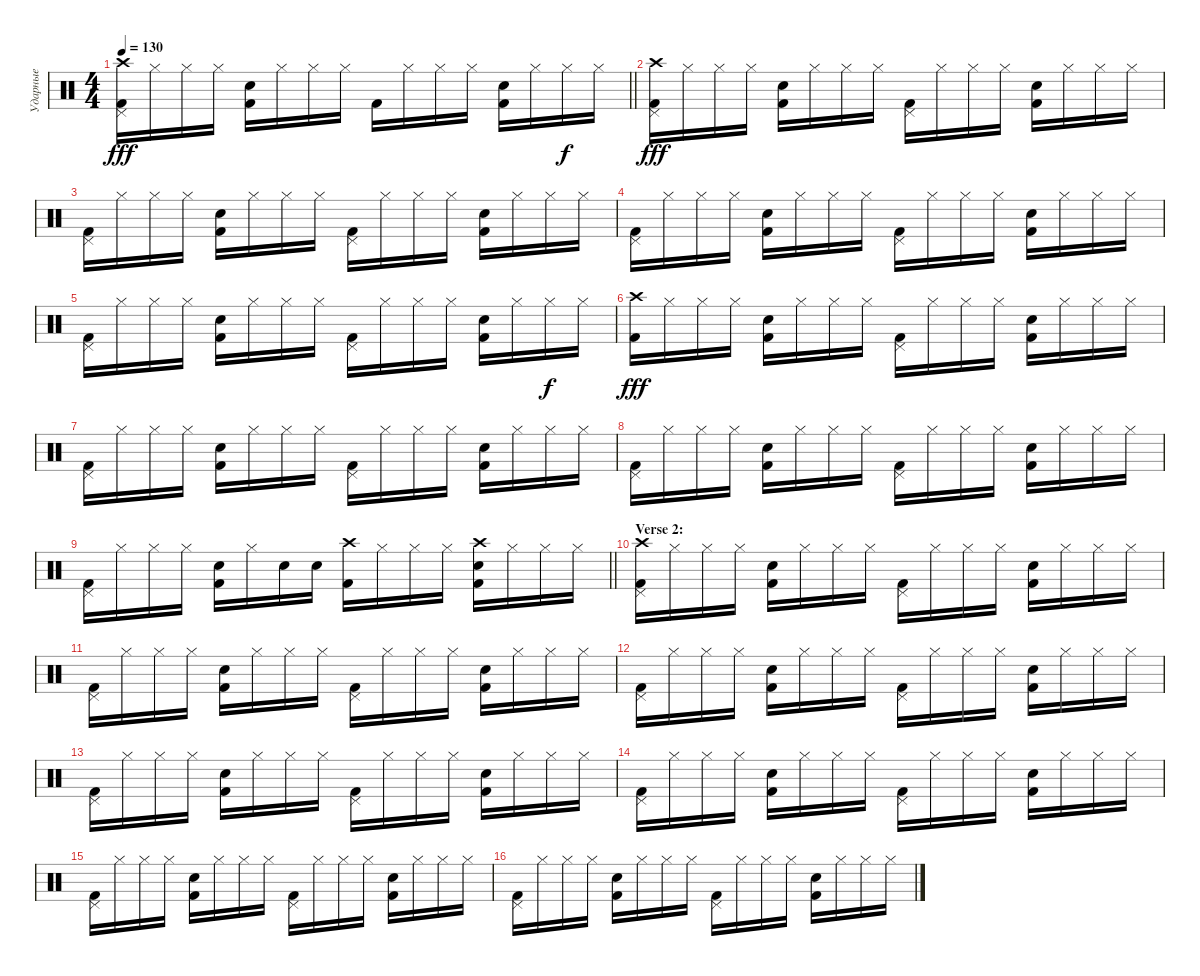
\track ("Ударные" "Ударные") {instrument percussion}
\staff {score}
\articulation defaults
\ts (4 4)
\tempo 130
\clef neutral
\barLineRight lightlight
\ks c
("Pedal Hi-Hat (hit)" "Crash high (hit)" "Kick (hit) 2").16{dy fff} "Hi-Hat (closed)".16 "Hi-Hat (closed)".16 "Hi-Hat (closed)".16 ("Snare (hit) 2" "Kick (hit) 2").16 "Hi-Hat (closed)".16 "Hi-Hat (closed)".16 "Hi-Hat (closed)".16 "Kick (hit) 2".16 "Hi-Hat (closed)".16 "Hi-Hat (closed)".16 "Hi-Hat (closed)".16 ("Snare (hit) 2" "Kick (hit) 2").16 "Hi-Hat (closed)".16 "Hi-Hat (closed)".16{dy f} "Hi-Hat (closed)".16 |
("Pedal Hi-Hat (hit)" "Crash high (hit)" "Kick (hit) 2").16{dy fff} "Hi-Hat (closed)".16 "Hi-Hat (closed)".16 "Hi-Hat (closed)".16 ("Snare (hit) 2" "Kick (hit) 2").16 "Hi-Hat (closed)".16 "Hi-Hat (closed)".16 "Hi-Hat (closed)".16 ("Pedal Hi-Hat (hit)" "Kick (hit) 2").16 "Hi-Hat (closed)".16 "Hi-Hat (closed)".16 "Hi-Hat (closed)".16 ("Snare (hit) 2" "Kick (hit) 2").16 "Hi-Hat (closed)".16 "Hi-Hat (closed)".16 "Hi-Hat (closed)".16 |
("Pedal Hi-Hat (hit)" "Kick (hit) 2").16 "Hi-Hat (closed)".16 "Hi-Hat (closed)".16 "Hi-Hat (closed)".16 ("Snare (hit) 2" "Kick (hit) 2").16 "Hi-Hat (closed)".16 "Hi-Hat (closed)".16 "Hi-Hat (closed)".16 ("Pedal Hi-Hat (hit)" "Kick (hit) 2").16 "Hi-Hat (closed)".16 "Hi-Hat (closed)".16 "Hi-Hat (closed)".16 ("Snare (hit) 2" "Kick (hit) 2").16 "Hi-Hat (closed)".16 "Hi-Hat (closed)".16 "Hi-Hat (closed)".16 |
("Pedal Hi-Hat (hit)" "Kick (hit) 2").16 "Hi-Hat (closed)".16 "Hi-Hat (closed)".16 "Hi-Hat (closed)".16 ("Snare (hit) 2" "Kick (hit) 2").16 "Hi-Hat (closed)".16 "Hi-Hat (closed)".16 "Hi-Hat (closed)".16 ("Pedal Hi-Hat (hit)" "Kick (hit) 2").16 "Hi-Hat (closed)".16 "Hi-Hat (closed)".16 "Hi-Hat (closed)".16 ("Snare (hit) 2" "Kick (hit) 2").16 "Hi-Hat (closed)".16 "Hi-Hat (closed)".16 "Hi-Hat (closed)".16 |
("Pedal Hi-Hat (hit)" "Kick (hit) 2").16 "Hi-Hat (closed)".16 "Hi-Hat (closed)".16 "Hi-Hat (closed)".16 ("Snare (hit) 2" "Kick (hit) 2").16 "Hi-Hat (closed)".16 "Hi-Hat (closed)".16 "Hi-Hat (closed)".16 ("Pedal Hi-Hat (hit)" "Kick (hit) 2").16 "Hi-Hat (closed)".16 "Hi-Hat (closed)".16 "Hi-Hat (closed)".16 ("Snare (hit) 2" "Kick (hit) 2").16 "Hi-Hat (closed)".16 "Hi-Hat (closed)".16{dy f} "Hi-Hat (closed)".16 |
("Crash high (hit)" "Kick (hit) 2").16{dy fff} "Hi-Hat (closed)".16 "Hi-Hat (closed)".16 "Hi-Hat (closed)".16 ("Snare (hit) 2" "Kick (hit) 2").16 "Hi-Hat (closed)".16 "Hi-Hat (closed)".16 "Hi-Hat (closed)".16 ("Pedal Hi-Hat (hit)" "Kick (hit) 2").16 "Hi-Hat (closed)".16 "Hi-Hat (closed)".16 "Hi-Hat (closed)".16 ("Snare (hit) 2" "Kick (hit) 2").16 "Hi-Hat (closed)".16 "Hi-Hat (closed)".16 "Hi-Hat (closed)".16 |
("Pedal Hi-Hat (hit)" "Kick (hit) 2").16 "Hi-Hat (closed)".16 "Hi-Hat (closed)".16 "Hi-Hat (closed)".16 ("Snare (hit) 2" "Kick (hit) 2").16 "Hi-Hat (closed)".16 "Hi-Hat (closed)".16 "Hi-Hat (closed)".16 ("Pedal Hi-Hat (hit)" "Kick (hit) 2").16 "Hi-Hat (closed)".16 "Hi-Hat (closed)".16 "Hi-Hat (closed)".16 ("Snare (hit) 2" "Kick (hit) 2").16 "Hi-Hat (closed)".16 "Hi-Hat (closed)".16 "Hi-Hat (closed)".16 |
("Pedal Hi-Hat (hit)" "Kick (hit) 2").16 "Hi-Hat (closed)".16 "Hi-Hat (closed)".16 "Hi-Hat (closed)".16 ("Snare (hit) 2" "Kick (hit) 2").16 "Hi-Hat (closed)".16 "Hi-Hat (closed)".16 "Hi-Hat (closed)".16 ("Pedal Hi-Hat (hit)" "Kick (hit) 2").16 "Hi-Hat (closed)".16 "Hi-Hat (closed)".16 "Hi-Hat (closed)".16 ("Snare (hit) 2" "Kick (hit) 2").16 "Hi-Hat (closed)".16 "Hi-Hat (closed)".16 "Hi-Hat (closed)".16 |
\barLineRight lightlight
("Pedal Hi-Hat (hit)" "Kick (hit) 2").16 "Hi-Hat (closed)".16 "Hi-Hat (closed)".16 "Hi-Hat (closed)".16 ("Snare (hit) 2" "Kick (hit) 2").16 "Hi-Hat (closed)".16 "Snare (hit) 2".16 "Snare (hit) 2".16 ("Crash high (hit)" "Kick (hit) 2").16 "Hi-Hat (closed)".16 "Hi-Hat (closed)".16 "Hi-Hat (closed)".16 ("Snare (hit) 2" "Crash high (hit)" "Kick (hit) 2").16 "Hi-Hat (closed)".16 "Hi-Hat (closed)".16 "Hi-Hat (closed)".16 |
\section ("" "Verse 2:")
("Pedal Hi-Hat (hit)" "Crash high (hit)" "Kick (hit) 2").16 "Hi-Hat (closed)".16 "Hi-Hat (closed)".16 "Hi-Hat (closed)".16 ("Snare (hit) 2" "Kick (hit) 2").16 "Hi-Hat (closed)".16 "Hi-Hat (closed)".16 "Hi-Hat (closed)".16 ("Pedal Hi-Hat (hit)" "Kick (hit) 2").16 "Hi-Hat (closed)".16 "Hi-Hat (closed)".16 "Hi-Hat (closed)".16 ("Snare (hit) 2" "Kick (hit) 2").16 "Hi-Hat (closed)".16 "Hi-Hat (closed)".16 "Hi-Hat (closed)".16 |
("Pedal Hi-Hat (hit)" "Kick (hit) 2").16 "Hi-Hat (closed)".16 "Hi-Hat (closed)".16 "Hi-Hat (closed)".16 ("Snare (hit) 2" "Kick (hit) 2").16 "Hi-Hat (closed)".16 "Hi-Hat (closed)".16 "Hi-Hat (closed)".16 ("Pedal Hi-Hat (hit)" "Kick (hit) 2").16 "Hi-Hat (closed)".16 "Hi-Hat (closed)".16 "Hi-Hat (closed)".16 ("Snare (hit) 2" "Kick (hit) 2").16 "Hi-Hat (closed)".16 "Hi-Hat (closed)".16 "Hi-Hat (closed)".16 |
("Pedal Hi-Hat (hit)" "Kick (hit) 2").16 "Hi-Hat (closed)".16 "Hi-Hat (closed)".16 "Hi-Hat (closed)".16 ("Snare (hit) 2" "Kick (hit) 2").16 "Hi-Hat (closed)".16 "Hi-Hat (closed)".16 "Hi-Hat (closed)".16 ("Pedal Hi-Hat (hit)" "Kick (hit) 2").16 "Hi-Hat (closed)".16 "Hi-Hat (closed)".16 "Hi-Hat (closed)".16 ("Snare (hit) 2" "Kick (hit) 2").16 "Hi-Hat (closed)".16 "Hi-Hat (closed)".16 "Hi-Hat (closed)".16 |
("Pedal Hi-Hat (hit)" "Kick (hit) 2").16 "Hi-Hat (closed)".16 "Hi-Hat (closed)".16 "Hi-Hat (closed)".16 ("Snare (hit) 2" "Kick (hit) 2").16 "Hi-Hat (closed)".16 "Hi-Hat (closed)".16 "Hi-Hat (closed)".16 ("Pedal Hi-Hat (hit)" "Kick (hit) 2").16 "Hi-Hat (closed)".16 "Hi-Hat (closed)".16 "Hi-Hat (closed)".16 ("Snare (hit) 2" "Kick (hit) 2").16 "Hi-Hat (closed)".16 "Hi-Hat (closed)".16 "Hi-Hat (closed)".16 |
("Pedal Hi-Hat (hit)" "Kick (hit) 2").16 "Hi-Hat (closed)".16 "Hi-Hat (closed)".16 "Hi-Hat (closed)".16 ("Snare (hit) 2" "Kick (hit) 2").16 "Hi-Hat (closed)".16 "Hi-Hat (closed)".16 "Hi-Hat (closed)".16 ("Pedal Hi-Hat (hit)" "Kick (hit) 2").16 "Hi-Hat (closed)".16 "Hi-Hat (closed)".16 "Hi-Hat (closed)".16 ("Snare (hit) 2" "Kick (hit) 2").16 "Hi-Hat (closed)".16 "Hi-Hat (closed)".16 "Hi-Hat (closed)".16 |
("Pedal Hi-Hat (hit)" "Kick (hit) 2").16 "Hi-Hat (closed)".16 "Hi-Hat (closed)".16 "Hi-Hat (closed)".16 ("Snare (hit) 2" "Kick (hit) 2").16 "Hi-Hat (closed)".16 "Hi-Hat (closed)".16 "Hi-Hat (closed)".16 ("Pedal Hi-Hat (hit)" "Kick (hit) 2").16 "Hi-Hat (closed)".16 "Hi-Hat (closed)".16 "Hi-Hat (closed)".16 ("Snare (hit) 2" "Kick (hit) 2").16 "Hi-Hat (closed)".16 "Hi-Hat (closed)".16 "Hi-Hat (closed)".16 |
("Pedal Hi-Hat (hit)" "Kick (hit) 2").16 "Hi-Hat (closed)".16 "Hi-Hat (closed)".16 "Hi-Hat (closed)".16 ("Snare (hit) 2" "Kick (hit) 2").16 "Hi-Hat (closed)".16 "Hi-Hat (closed)".16 "Hi-Hat (closed)".16 ("Pedal Hi-Hat (hit)" "Kick (hit) 2").16 "Hi-Hat (closed)".16 "Hi-Hat (closed)".16 "Hi-Hat (closed)".16 ("Snare (hit) 2" "Kick (hit) 2").16 "Hi-Hat (closed)".16 "Hi-Hat (closed)".16 "Hi-Hat (closed)".16
